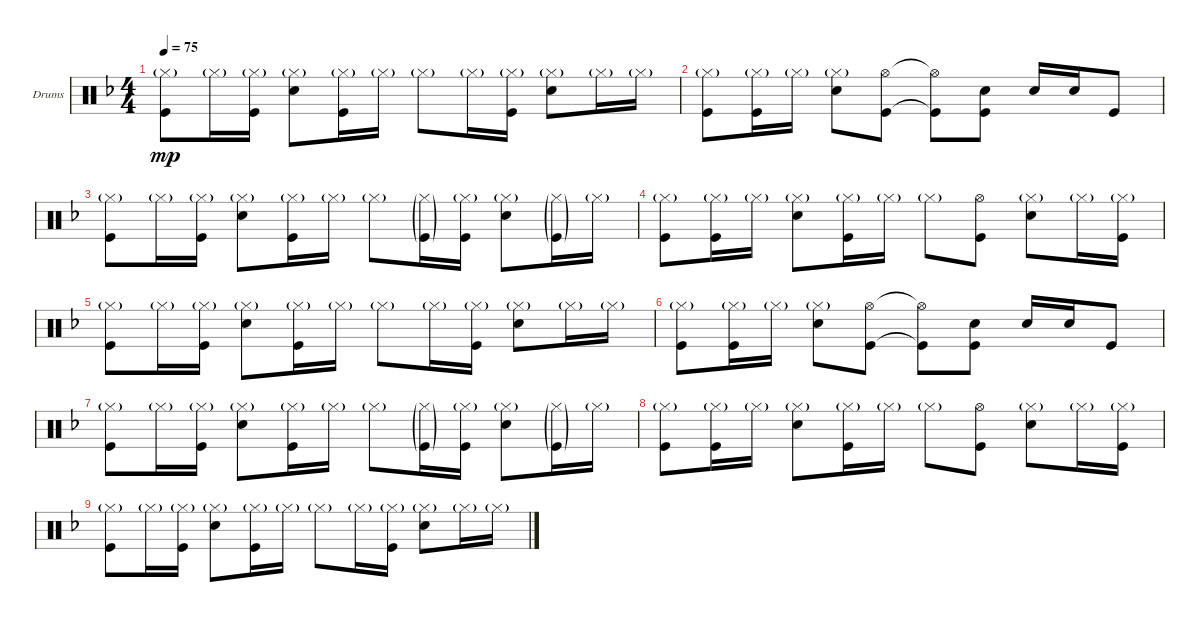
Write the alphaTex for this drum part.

\defaultSystemsLayout 4
\bracketExtendMode groupsimilarinstruments
\firstSystemTrackNameOrientation horizontal
\otherSystemsTrackNameOrientation horizontal
\track ("Drumkit" "Drums") {instrument percussion}
\staff {score}
\articulation defaults
\ts (4 4)
\tempo 75
\clef neutral
\ks dminor
("Hi-Hat (closed)"{g} "Kick (hit)").8{dy mp} "Hi-Hat (closed)"{g}.16 ("Hi-Hat (closed)"{g} "Kick (hit)").16 ("Hi-Hat (closed)"{g} "Snare (hit) 2").8 ("Hi-Hat (closed)"{g} "Kick (hit)").16 "Hi-Hat (closed)"{g}.16 "Hi-Hat (closed)"{g}.8 "Hi-Hat (closed)"{g}.16 ("Hi-Hat (closed)"{g} "Kick (hit)").16 ("Hi-Hat (closed)"{g} "Snare (hit) 2").8 "Hi-Hat (closed)"{g}.16 "Hi-Hat (closed)"{g}.16 |
("Hi-Hat (closed)"{g} "Kick (hit)").8 ("Hi-Hat (closed)"{g} "Kick (hit)").16 "Hi-Hat (closed)"{g}.16 ("Hi-Hat (closed)"{g} "Snare (hit) 2").8 ("Hi-Hat (open)" "Kick (hit)").8 ("Hi-Hat (open)"{t} "Kick (hit)"{t}).8 ("Kick (hit)" "Snare (hit) 2").8 "Snare (hit) 2".16 "Snare (hit) 2".16 "Kick (hit)".8 |
("Hi-Hat (closed)"{g} "Kick (hit)").8 "Hi-Hat (closed)"{g}.16 ("Hi-Hat (closed)"{g} "Kick (hit)").16 ("Hi-Hat (closed)"{g} "Snare (hit) 2").8 ("Hi-Hat (closed)"{g} "Kick (hit)").16 "Hi-Hat (closed)"{g}.16 "Hi-Hat (closed)"{g}.8 ("Hi-Hat (closed)"{g} "Kick (hit)"{g}).16 ("Hi-Hat (closed)"{g} "Kick (hit)").16 ("Hi-Hat (closed)"{g} "Snare (hit) 2").8 ("Hi-Hat (closed)"{g} "Kick (hit)"{g}).16 "Hi-Hat (closed)"{g}.16 |
("Hi-Hat (closed)"{g} "Kick (hit)").8 ("Hi-Hat (closed)"{g} "Kick (hit)").16 "Hi-Hat (closed)"{g}.16 ("Hi-Hat (closed)"{g} "Snare (hit) 2").8 ("Hi-Hat (closed)"{g} "Kick (hit)").16 "Hi-Hat (closed)"{g}.16 "Hi-Hat (closed)"{g}.8 ("Hi-Hat (open)" "Kick (hit)").8 ("Hi-Hat (closed)"{g} "Snare (hit) 2").8 "Hi-Hat (closed)"{g}.16 ("Hi-Hat (closed)"{g} "Kick (hit)").16 |
("Hi-Hat (closed)"{g} "Kick (hit)").8 "Hi-Hat (closed)"{g}.16 ("Hi-Hat (closed)"{g} "Kick (hit)").16 ("Hi-Hat (closed)"{g} "Snare (hit) 2").8 ("Hi-Hat (closed)"{g} "Kick (hit)").16 "Hi-Hat (closed)"{g}.16 "Hi-Hat (closed)"{g}.8 "Hi-Hat (closed)"{g}.16 ("Hi-Hat (closed)"{g} "Kick (hit)").16 ("Hi-Hat (closed)"{g} "Snare (hit) 2").8 "Hi-Hat (closed)"{g}.16 "Hi-Hat (closed)"{g}.16 |
("Hi-Hat (closed)"{g} "Kick (hit)").8 ("Hi-Hat (closed)"{g} "Kick (hit)").16 "Hi-Hat (closed)"{g}.16 ("Hi-Hat (closed)"{g} "Snare (hit) 2").8 ("Hi-Hat (open)" "Kick (hit)").8 ("Hi-Hat (open)"{t} "Kick (hit)"{t}).8 ("Kick (hit)" "Snare (hit) 2").8 "Snare (hit) 2".16 "Snare (hit) 2".16 "Kick (hit)".8 |
("Hi-Hat (closed)"{g} "Kick (hit)").8 "Hi-Hat (closed)"{g}.16 ("Hi-Hat (closed)"{g} "Kick (hit)").16 ("Hi-Hat (closed)"{g} "Snare (hit) 2").8 ("Hi-Hat (closed)"{g} "Kick (hit)").16 "Hi-Hat (closed)"{g}.16 "Hi-Hat (closed)"{g}.8 ("Hi-Hat (closed)"{g} "Kick (hit)"{g}).16 ("Hi-Hat (closed)"{g} "Kick (hit)").16 ("Hi-Hat (closed)"{g} "Snare (hit) 2").8 ("Hi-Hat (closed)"{g} "Kick (hit)"{g}).16 "Hi-Hat (closed)"{g}.16 |
("Hi-Hat (closed)"{g} "Kick (hit)").8 ("Hi-Hat (closed)"{g} "Kick (hit)").16 "Hi-Hat (closed)"{g}.16 ("Hi-Hat (closed)"{g} "Snare (hit) 2").8 ("Hi-Hat (closed)"{g} "Kick (hit)").16 "Hi-Hat (closed)"{g}.16 "Hi-Hat (closed)"{g}.8 ("Hi-Hat (open)" "Kick (hit)").8 ("Hi-Hat (closed)"{g} "Snare (hit) 2").8 "Hi-Hat (closed)"{g}.16 ("Hi-Hat (closed)"{g} "Kick (hit)").16 |
("Hi-Hat (closed)"{g} "Kick (hit)").8 "Hi-Hat (closed)"{g}.16 ("Hi-Hat (closed)"{g} "Kick (hit)").16 ("Hi-Hat (closed)"{g} "Snare (hit) 2").8 ("Hi-Hat (closed)"{g} "Kick (hit)").16 "Hi-Hat (closed)"{g}.16 "Hi-Hat (closed)"{g}.8 "Hi-Hat (closed)"{g}.16 ("Hi-Hat (closed)"{g} "Kick (hit)").16 ("Hi-Hat (closed)"{g} "Snare (hit) 2").8 "Hi-Hat (closed)"{g}.16 "Hi-Hat (closed)"{g}.16
